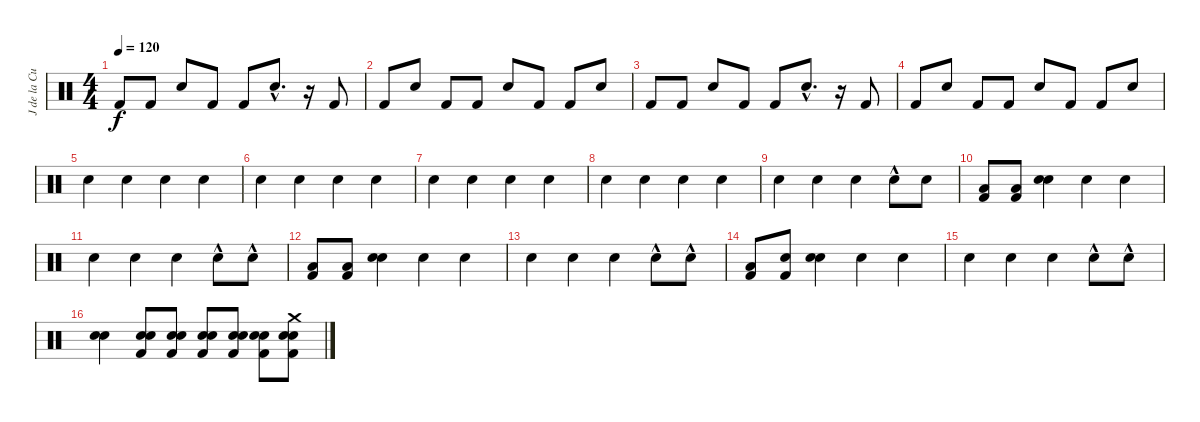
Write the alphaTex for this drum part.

\track ("J de la Cueva" "J de la Cu") {instrument percussion}
\staff {score}
\articulation defaults
\ts (4 4)
\tempo 120
\clef neutral
\ks c "Kick (hit) 2".8{dy f} "Kick (hit) 2".8 "Snare (hit) 2".8 "Kick (hit) 2".8 "Kick (hit) 2".8 "Snare (hit) 2"{hac}.8{d}
r.16 "Kick (hit) 2".8 |
"Kick (hit) 2".8 "Snare (hit) 2".8 "Kick (hit) 2".8 "Kick (hit) 2".8 "Snare (hit) 2".8 "Kick (hit) 2".8 "Kick (hit) 2".8 "Snare (hit) 2".8 |
"Kick (hit) 2".8 "Kick (hit) 2".8 "Snare (hit) 2".8 "Kick (hit) 2".8 "Kick (hit) 2".8 "Snare (hit) 2"{hac}.8{d} r.16 "Kick (hit) 2".8 |
"Kick (hit) 2".8 "Snare (hit) 2".8 "Kick (hit) 2".8 "Kick (hit) 2".8 "Snare (hit) 2".8 "Kick (hit) 2".8 "Kick (hit) 2".8 "Snare (hit) 2".8 |
"Snare (hit) 2".4 "Snare (hit) 2".4 "Snare (hit) 2".4 "Snare (hit) 2".4 |
"Snare (hit) 2".4 "Snare (hit) 2".4 "Snare (hit) 2".4 "Snare (hit) 2".4 |
"Snare (hit) 2".4 "Snare (hit) 2".4 "Snare (hit) 2".4 "Snare (hit) 2".4 |
"Snare (hit) 2".4 "Snare (hit) 2".4 "Snare (hit) 2".4 "Snare (hit) 2".4 |
"Snare (hit) 2".4 "Snare (hit) 2".4 "Snare (hit) 2".4 "Snare (hit) 2"{hac}.8 "Electric Snare (hit)".8 |
("Low Tom (hit)" "Kick (hit) 2").8 ("Low Tom (hit)" "Kick (hit) 2").8 ("Snare (hit) 2" "Electric Snare (hit)").4 "Snare (hit) 2".4 "Snare (hit) 2".4 |
"Snare (hit) 2".4 "Snare (hit) 2".4 "Snare (hit) 2".4 "Snare (hit) 2"{hac}.8 "Electric Snare (hit)"{hac}.8 |
("Low Tom (hit)" "Kick (hit) 2").8 ("Low Tom (hit)" "Kick (hit) 2").8 ("Snare (hit) 2" "Electric Snare (hit)").4 "Snare (hit) 2".4 "Snare (hit) 2".4 |
"Snare (hit) 2".4 "Snare (hit) 2".4 "Snare (hit) 2".4 "Snare (hit) 2"{hac}.8 "Electric Snare (hit)"{hac}.8 |
("Low Tom (hit)" "Kick (hit) 2").8 ("Snare (hit)" "Kick (hit) 2").8 ("Snare (hit) 2" "Electric Snare (hit)").4 "Snare (hit) 2".4 "Snare (hit) 2".4 |
"Snare (hit) 2".4 "Snare (hit) 2".4 "Snare (hit) 2".4 "Snare (hit) 2"{hac}.8 "Electric Snare (hit)"{hac}.8 |
("Snare (hit) 2" "Electric Snare (hit)").4 ("Snare (hit) 2" "Electric Snare (hit)" "Kick (hit) 2").8 ("Snare (hit) 2" "Electric Snare (hit)" "Kick (hit) 2").8 ("Snare (hit) 2" "Electric Snare (hit)" "Kick (hit) 2").8 ("Snare (hit) 2" "Electric Snare (hit)" "Kick (hit) 2").8 ("Snare (hit) 2" "Electric Snare (hit)" "Kick (hit) 2").8 ("Crash medium (hit)" "Snare (hit) 2" "Electric Snare (hit)" "Kick (hit) 2").8
